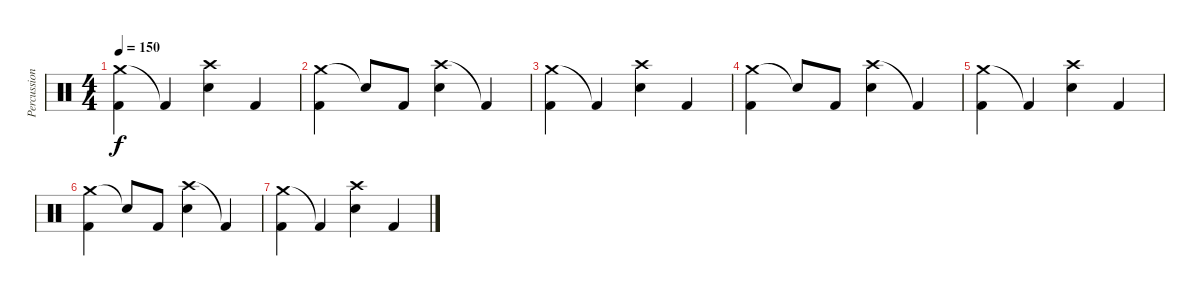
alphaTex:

\track ("Percussions" "Percussion") {instrument percussion}
\staff {score}
\articulation defaults
\ts (4 4)
\tempo 150
\clef neutral
\ks c
("Crash medium (hit)" "Kick (hit) 2").4{dy f} "Kick (hit) 2"{t}.4 ("Crash high (hit)" "Snare (hit) 2").4 "Kick (hit) 2".4 |
("Crash medium (hit)" "Kick (hit) 2").4 "Snare (hit)"{t}.8 "Kick (hit) 2".8 ("Crash high (hit)" "Snare (hit) 2").4 "Kick (hit) 2"{t}.4 |
("Crash medium (hit)" "Kick (hit) 2").4 "Kick (hit) 2"{t}.4 ("Crash high (hit)" "Snare (hit) 2").4 "Kick (hit) 2".4 |
("Crash medium (hit)" "Kick (hit) 2").4 "Snare (hit)"{t}.8 "Kick (hit) 2".8 ("Crash high (hit)" "Snare (hit) 2").4 "Kick (hit) 2"{t}.4 |
("Crash medium (hit)" "Kick (hit) 2").4 "Kick (hit) 2"{t}.4 ("Crash high (hit)" "Snare (hit) 2").4 "Kick (hit) 2".4 |
("Crash medium (hit)" "Kick (hit) 2").4 "Snare (hit)"{t}.8 "Kick (hit) 2".8 ("Crash high (hit)" "Snare (hit) 2").4 "Kick (hit) 2"{t}.4 |
("Crash medium (hit)" "Kick (hit) 2").4 "Kick (hit) 2"{t}.4 ("Crash high (hit)" "Snare (hit) 2").4 "Kick (hit) 2".4
